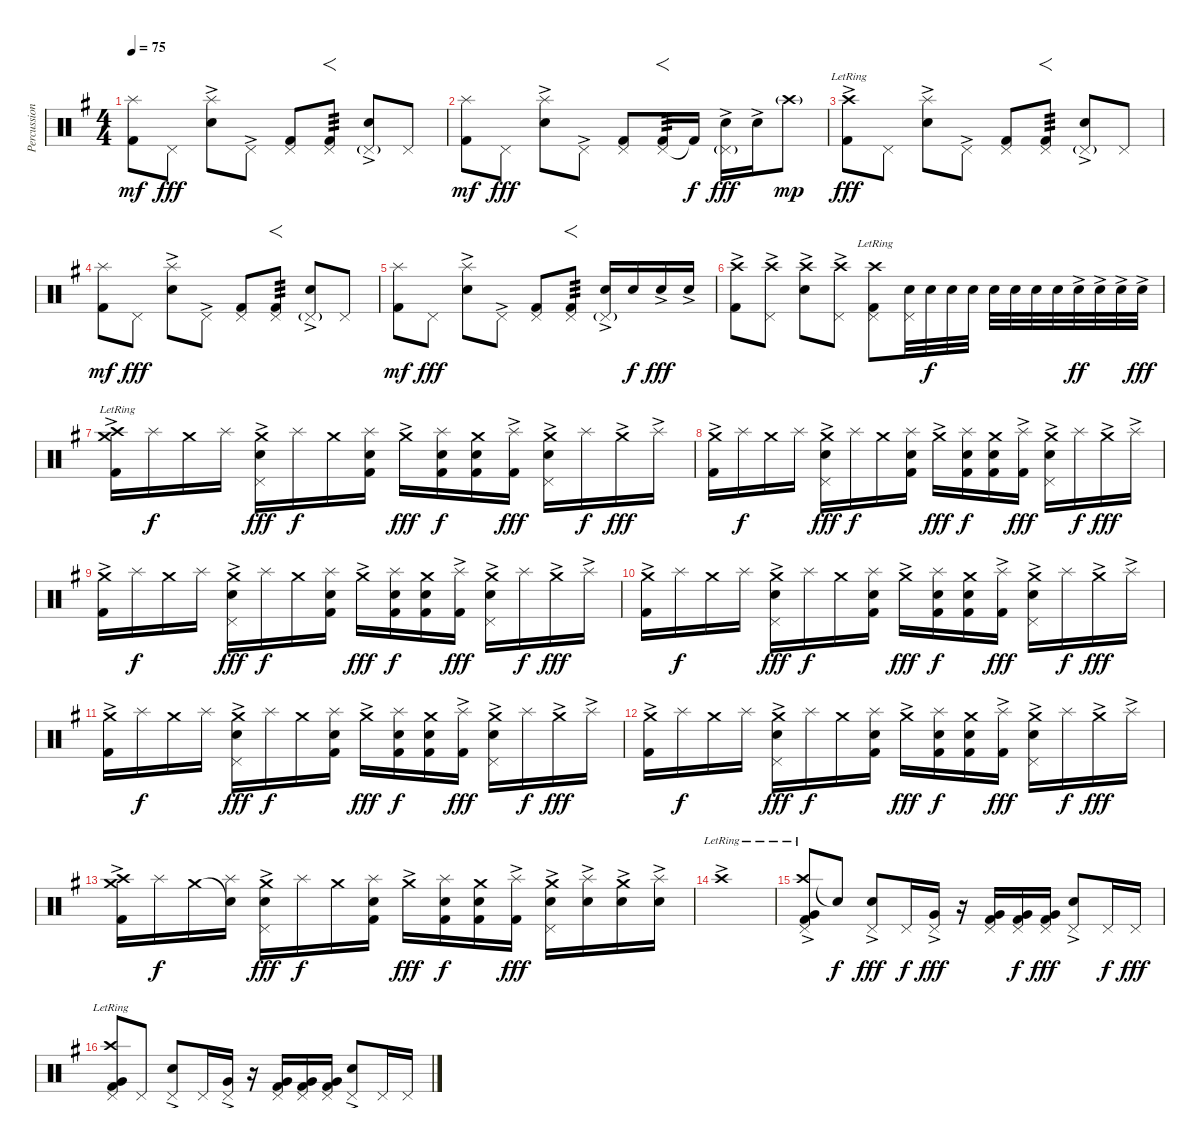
\track ("Percussion" "Percussion") {instrument percussion}
\staff {score}
\articulation defaults
\ts (4 4)
\tempo 75
\clef neutral
\ks g
("Splash (hit)" "Kick (hit) 2").8{dy mf} "Pedal Hi-Hat (hit)".8{dy fff} ("Splash (hit)" "Electric Snare (hit)"{ac}).8 "Pedal Hi-Hat (hit)"{ac}.8 ("Pedal Hi-Hat (hit)" "Kick (hit) 2").8 ("Pedal Hi-Hat (hit)" "Kick (hit) 2").8{f tp 3} ("Pedal Hi-Hat (hit)"{g} "Electric Snare (hit)"{ac}).8 "Pedal Hi-Hat (hit)".8 |
("Splash (hit)" "Kick (hit) 2").8{dy mf} "Pedal Hi-Hat (hit)".8{dy fff} ("Splash (hit)" "Electric Snare (hit)"{ac}).8 "Pedal Hi-Hat (hit)"{ac}.8 ("Pedal Hi-Hat (hit)" "Kick (hit) 2").8 ("Pedal Hi-Hat (hit)" "Kick (hit) 2").16{f tp 3} "Kick (hit) 2"{t}.16{dy f} ("Pedal Hi-Hat (hit)"{g} "Electric Snare (hit)"{ac}).16{dy fff} "Electric Snare (hit)"{ac}.16 "Crash high (hit)"{g}.8{dy mp} |
("Crash high (hit)"{ac lr} "Kick (hit) 2").8{dy fff} "Pedal Hi-Hat (hit)".8 ("Splash (hit)" "Electric Snare (hit)"{ac}).8 "Pedal Hi-Hat (hit)"{ac}.8 ("Pedal Hi-Hat (hit)" "Kick (hit) 2").8 ("Pedal Hi-Hat (hit)" "Kick (hit) 2").8{f tp 3} ("Pedal Hi-Hat (hit)"{g} "Electric Snare (hit)"{ac}).8 "Pedal Hi-Hat (hit)".8 |
("Splash (hit)" "Kick (hit) 2").8{dy mf} "Pedal Hi-Hat (hit)".8{dy fff} ("Splash (hit)" "Electric Snare (hit)"{ac}).8 "Pedal Hi-Hat (hit)"{ac}.8 ("Pedal Hi-Hat (hit)" "Kick (hit) 2").8 ("Pedal Hi-Hat (hit)" "Kick (hit) 2").8{f tp 3} ("Pedal Hi-Hat (hit)"{g} "Electric Snare (hit)"{ac}).8 "Pedal Hi-Hat (hit)".8 |
("Splash (hit)" "Kick (hit) 2").8{dy mf} "Pedal Hi-Hat (hit)".8{dy fff} ("Splash (hit)" "Electric Snare (hit)"{ac}).8 "Pedal Hi-Hat (hit)"{ac}.8 ("Pedal Hi-Hat (hit)" "Kick (hit) 2").8 ("Pedal Hi-Hat (hit)" "Kick (hit) 2").8{f tp 3} ("Pedal Hi-Hat (hit)"{g} "Electric Snare (hit)"{ac}).16 "Electric Snare (hit)".16{dy f} "Electric Snare (hit)"{ac}.16{dy fff} "Electric Snare (hit)"{ac}.16 |
("Crash high (hit)"{ac} "Kick (hit) 2").8 ("Crash high (hit)"{ac} "Pedal Hi-Hat (hit)").8 ("Crash high (hit)"{ac} "Electric Snare (hit)"{ac}).8 ("Crash high (hit)"{ac} "Pedal Hi-Hat (hit)"{ac}).8 ("Crash high (hit)"{lr} "Pedal Hi-Hat (hit)" "Kick (hit) 2").8 ("Pedal Hi-Hat (hit)" "Electric Snare (hit)").32{volume 7} "Electric Snare (hit)".32{dy f volume 16} "Electric Snare (hit)".32 "Electric Snare (hit)".32 "Electric Snare (hit)".32 "Electric Snare (hit)".32 "Electric Snare (hit)".32 "Electric Snare (hit)".32 "Electric Snare (hit)"{ac}.32{dy ff} "Electric Snare (hit)"{ac}.32 "Electric Snare (hit)"{ac}.32 "Electric Snare (hit)"{ac}.32{dy fff} |
("Crash high (hit)"{ac lr} "Crash medium (hit)"{ac} "Kick (hit) 2"{ac}).16{volume 12} "Splash (hit)".16{dy f} "Crash medium (hit)".16 "Splash (hit)".16 ("Pedal Hi-Hat (hit)" "Crash medium (hit)"{ac} "Electric Snare (hit)"{ac}).16{dy fff} "Splash (hit)".16{dy f} "Crash medium (hit)".16 ("Splash (hit)" "Electric Snare (hit)" "Kick (hit) 2").16 "Crash medium (hit)"{ac}.16{dy fff} ("Splash (hit)" "Electric Snare (hit)" "Kick (hit) 2").16{dy f} ("Crash medium (hit)" "Electric Snare (hit)" "Kick (hit) 2").16 ("Splash (hit)" "Kick (hit) 2"{ac}).16{dy fff} ("Pedal Hi-Hat (hit)" "Crash medium (hit)"{ac} "Electric Snare (hit)"{ac}).16 "Splash (hit)".16{dy f} "Crash medium (hit)"{ac}.16{dy fff} "Splash (hit)"{ac}.16 |
("Crash medium (hit)"{ac} "Kick (hit) 2"{ac}).16 "Splash (hit)".16{dy f} "Crash medium (hit)".16 "Splash (hit)".16 ("Pedal Hi-Hat (hit)" "Crash medium (hit)"{ac} "Electric Snare (hit)"{ac}).16{dy fff} "Splash (hit)".16{dy f} "Crash medium (hit)".16 ("Splash (hit)" "Electric Snare (hit)" "Kick (hit) 2").16 "Crash medium (hit)"{ac}.16{dy fff} ("Splash (hit)" "Electric Snare (hit)" "Kick (hit) 2").16{dy f} ("Crash medium (hit)" "Electric Snare (hit)" "Kick (hit) 2").16 ("Splash (hit)" "Kick (hit) 2"{ac}).16{dy fff} ("Pedal Hi-Hat (hit)" "Crash medium (hit)"{ac} "Electric Snare (hit)"{ac}).16 "Splash (hit)".16{dy f} "Crash medium (hit)"{ac}.16{dy fff} "Splash (hit)"{ac}.16 |
("Crash medium (hit)"{ac} "Kick (hit) 2"{ac}).16 "Splash (hit)".16{dy f} "Crash medium (hit)".16 "Splash (hit)".16 ("Pedal Hi-Hat (hit)" "Crash medium (hit)"{ac} "Electric Snare (hit)"{ac}).16{dy fff} "Splash (hit)".16{dy f} "Crash medium (hit)".16 ("Splash (hit)" "Electric Snare (hit)" "Kick (hit) 2").16 "Crash medium (hit)"{ac}.16{dy fff} ("Splash (hit)" "Electric Snare (hit)" "Kick (hit) 2").16{dy f} ("Crash medium (hit)" "Electric Snare (hit)" "Kick (hit) 2").16 ("Splash (hit)" "Kick (hit) 2"{ac}).16{dy fff} ("Pedal Hi-Hat (hit)" "Crash medium (hit)"{ac} "Electric Snare (hit)"{ac}).16 "Splash (hit)".16{dy f} "Crash medium (hit)"{ac}.16{dy fff} "Splash (hit)"{ac}.16 |
("Crash medium (hit)"{ac} "Kick (hit) 2"{ac}).16 "Splash (hit)".16{dy f} "Crash medium (hit)".16 "Splash (hit)".16 ("Pedal Hi-Hat (hit)" "Crash medium (hit)"{ac} "Electric Snare (hit)"{ac}).16{dy fff} "Splash (hit)".16{dy f} "Crash medium (hit)".16 ("Splash (hit)" "Electric Snare (hit)" "Kick (hit) 2").16 "Crash medium (hit)"{ac}.16{dy fff} ("Splash (hit)" "Electric Snare (hit)" "Kick (hit) 2").16{dy f} ("Crash medium (hit)" "Electric Snare (hit)" "Kick (hit) 2").16 ("Splash (hit)" "Kick (hit) 2"{ac}).16{dy fff} ("Pedal Hi-Hat (hit)" "Crash medium (hit)"{ac} "Electric Snare (hit)"{ac}).16 "Splash (hit)".16{dy f} "Crash medium (hit)"{ac}.16{dy fff} "Splash (hit)"{ac}.16 |
("Crash medium (hit)"{ac} "Kick (hit) 2"{ac}).16 "Splash (hit)".16{dy f} "Crash medium (hit)".16 "Splash (hit)".16 ("Pedal Hi-Hat (hit)" "Crash medium (hit)"{ac} "Electric Snare (hit)"{ac}).16{dy fff} "Splash (hit)".16{dy f} "Crash medium (hit)".16 ("Splash (hit)" "Electric Snare (hit)" "Kick (hit) 2").16 "Crash medium (hit)"{ac}.16{dy fff} ("Splash (hit)" "Electric Snare (hit)" "Kick (hit) 2").16{dy f} ("Crash medium (hit)" "Electric Snare (hit)" "Kick (hit) 2").16 ("Splash (hit)" "Kick (hit) 2"{ac}).16{dy fff} ("Pedal Hi-Hat (hit)" "Crash medium (hit)"{ac} "Electric Snare (hit)"{ac}).16 "Splash (hit)".16{dy f} "Crash medium (hit)"{ac}.16{dy fff} "Splash (hit)"{ac}.16 |
("Crash medium (hit)"{ac} "Kick (hit) 2"{ac}).16 "Splash (hit)".16{dy f} "Crash medium (hit)".16 "Splash (hit)".16 ("Pedal Hi-Hat (hit)" "Crash medium (hit)"{ac} "Electric Snare (hit)"{ac}).16{dy fff} "Splash (hit)".16{dy f} "Crash medium (hit)".16 ("Splash (hit)" "Electric Snare (hit)" "Kick (hit) 2").16 "Crash medium (hit)"{ac}.16{dy fff} ("Splash (hit)" "Electric Snare (hit)" "Kick (hit) 2").16{dy f} ("Crash medium (hit)" "Electric Snare (hit)" "Kick (hit) 2").16 ("Splash (hit)" "Kick (hit) 2"{ac}).16{dy fff} ("Pedal Hi-Hat (hit)" "Crash medium (hit)"{ac} "Electric Snare (hit)"{ac}).16 "Splash (hit)".16{dy f} "Crash medium (hit)"{ac}.16{dy fff} "Splash (hit)"{ac}.16 |
("Crash high (hit)"{ac} "Crash medium (hit)" "Kick (hit) 2"{ac}).16 "Splash (hit)".16{dy f} "Crash medium (hit)".16 ("Snare (hit)"{t} "Splash (hit)").16 ("Pedal Hi-Hat (hit)" "Crash medium (hit)"{ac} "Electric Snare (hit)"{ac}).16{dy fff} "Splash (hit)".16{dy f} "Crash medium (hit)".16 ("Splash (hit)" "Electric Snare (hit)" "Kick (hit) 2").16 "Crash medium (hit)"{ac}.16{dy fff} ("Splash (hit)" "Electric Snare (hit)" "Kick (hit) 2").16{dy f} ("Crash medium (hit)" "Electric Snare (hit)" "Kick (hit) 2").16 ("Splash (hit)" "Kick (hit) 2"{ac}).16{dy fff} ("Pedal Hi-Hat (hit)" "Crash medium (hit)"{ac} "Electric Snare (hit)"{ac}).16 ("Splash (hit)" "Electric Snare (hit)"{ac}).16 ("Crash medium (hit)"{ac} "Electric Snare (hit)"{ac}).16 ("Splash (hit)"{ac} "Electric Snare (hit)"{ac}).16 |
"Crash high (hit)"{ac lr}.1{volume 14} |
("Crash high (hit)"{ac lr} "Pedal Hi-Hat (hit)" "Very Low Tom (hit)" "Kick (hit) 2").8{volume 8} "Snare (hit)"{t}.8{dy f} ("Pedal Hi-Hat (hit)" "Electric Snare (hit)"{ac}).8{dy fff} "Pedal Hi-Hat (hit)".16{dy f} ("Pedal Hi-Hat (hit)" "Very Low Tom (hit)"{ac}).16{dy fff} r.16 ("Pedal Hi-Hat (hit)" "Very Low Tom (hit)" "Kick (hit) 2").16 ("Pedal Hi-Hat (hit)" "Very Low Tom (hit)" "Kick (hit) 2").16{dy f} ("Pedal Hi-Hat (hit)" "Very Low Tom (hit)" "Kick (hit) 2").16{dy fff} ("Pedal Hi-Hat (hit)" "Electric Snare (hit)"{ac}).8 "Pedal Hi-Hat (hit)".16{dy f} "Pedal Hi-Hat (hit)".16{dy fff} |
("Crash high (hit)"{lr} "Pedal Hi-Hat (hit)" "Very Low Tom (hit)" "Kick (hit) 2").8{volume 8} "Pedal Hi-Hat (hit)".8 ("Pedal Hi-Hat (hit)" "Electric Snare (hit)"{ac}).8 "Pedal Hi-Hat (hit)".16 ("Pedal Hi-Hat (hit)" "Very Low Tom (hit)"{ac}).16 r.16 ("Pedal Hi-Hat (hit)" "Very Low Tom (hit)" "Kick (hit) 2").16 ("Pedal Hi-Hat (hit)" "Very Low Tom (hit)" "Kick (hit) 2").16 ("Pedal Hi-Hat (hit)" "Very Low Tom (hit)" "Kick (hit) 2").16 ("Pedal Hi-Hat (hit)" "Electric Snare (hit)"{ac}).8 "Pedal Hi-Hat (hit)".16 "Pedal Hi-Hat (hit)".16
